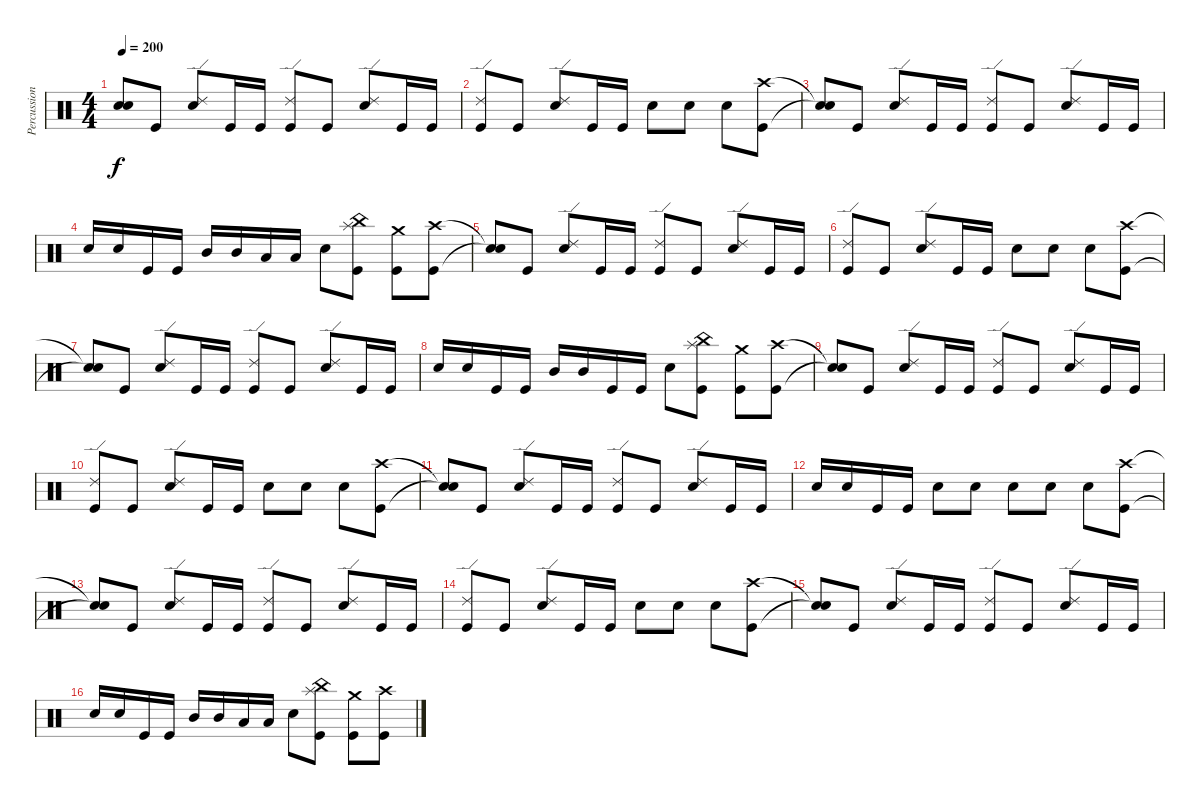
\track ("Percussioni" "Percussion") {instrument percussion}
\staff {score}
\articulation defaults
\ts (4 4)
\tempo 200
\clef neutral
\ks c
("Snare (hit)"{t} "Snare (hit)"{t}).8{dy f} "Kick (hit)".8 ("Ride (edge) 2" "Electric Snare (hit)").8 "Kick (hit)".16 "Kick (hit)".16 ("Ride (edge) 2" "Kick (hit)").8 "Kick (hit)".8 ("Ride (edge) 2" "Electric Snare (hit)").8 "Kick (hit)".16 "Kick (hit)".16 |
("Ride (edge) 2" "Kick (hit)").8 "Kick (hit)".8 ("Ride (edge) 2" "Electric Snare (hit)").8 "Kick (hit)".16 "Kick (hit)".16 "Electric Snare (hit)".8 "Electric Snare (hit)".8 "Electric Snare (hit)".8 ("Crash high (hit)" "Kick (hit)").8 |
("Snare (hit)"{t} "Snare (hit)"{t}).8 "Kick (hit)".8 ("Ride (edge) 2" "Electric Snare (hit)").8 "Kick (hit)".16 "Kick (hit)".16 ("Ride (edge) 2" "Kick (hit)").8 "Kick (hit)".8 ("Ride (edge) 2" "Electric Snare (hit)").8 "Kick (hit)".16 "Kick (hit)".16 |
"Electric Snare (hit)".16 "Electric Snare (hit)".16 "Kick (hit)".16 "Kick (hit)".16 "Mid Tom (hit)".16 "Mid Tom (hit)".16 "Low Tom (hit)".16 "Low Tom (hit)".16 "Electric Snare (hit)".8 ("Splash (hit)" "China (hit)" "Kick (hit)").8 ("Crash medium (hit)" "Kick (hit)").8 ("Crash high (hit)" "Kick (hit)").8 |
("Snare (hit)"{t} "Snare (hit)"{t}).8 "Kick (hit)".8 ("Ride (edge) 2" "Electric Snare (hit)").8 "Kick (hit)".16 "Kick (hit)".16 ("Ride (edge) 2" "Kick (hit)").8 "Kick (hit)".8 ("Ride (edge) 2" "Electric Snare (hit)").8 "Kick (hit)".16 "Kick (hit)".16 |
("Ride (edge) 2" "Kick (hit)").8 "Kick (hit)".8 ("Ride (edge) 2" "Electric Snare (hit)").8 "Kick (hit)".16 "Kick (hit)".16 "Electric Snare (hit)".8 "Electric Snare (hit)".8 "Electric Snare (hit)".8 ("Crash high (hit)" "Kick (hit)").8 |
("Snare (hit)"{t} "Snare (hit)"{t}).8 "Kick (hit)".8 ("Ride (edge) 2" "Electric Snare (hit)").8 "Kick (hit)".16 "Kick (hit)".16 ("Ride (edge) 2" "Kick (hit)").8 "Kick (hit)".8 ("Ride (edge) 2" "Electric Snare (hit)").8 "Kick (hit)".16 "Kick (hit)".16 |
"Electric Snare (hit)".16 "Electric Snare (hit)".16 "Kick (hit)".16 "Kick (hit)".16 "Mid Tom (hit)".16 "Mid Tom (hit)".16 "Kick (hit)".16 "Kick (hit)".16 "Electric Snare (hit)".8 ("Splash (hit)" "China (hit)" "Kick (hit)").8 ("Crash medium (hit)" "Kick (hit)").8 ("Crash high (hit)" "Kick (hit)").8 |
("Snare (hit)"{t} "Snare (hit)"{t}).8 "Kick (hit)".8 ("Ride (edge) 2" "Electric Snare (hit)").8 "Kick (hit)".16 "Kick (hit)".16 ("Ride (edge) 2" "Kick (hit)").8 "Kick (hit)".8 ("Ride (edge) 2" "Electric Snare (hit)").8 "Kick (hit)".16 "Kick (hit)".16 |
("Ride (edge) 2" "Kick (hit)").8 "Kick (hit)".8 ("Ride (edge) 2" "Electric Snare (hit)").8 "Kick (hit)".16 "Kick (hit)".16 "Electric Snare (hit)".8 "Electric Snare (hit)".8 "Electric Snare (hit)".8 ("Crash high (hit)" "Kick (hit)").8 |
("Snare (hit)"{t} "Snare (hit)"{t}).8 "Kick (hit)".8 ("Ride (edge) 2" "Electric Snare (hit)").8 "Kick (hit)".16 "Kick (hit)".16 ("Ride (edge) 2" "Kick (hit)").8 "Kick (hit)".8 ("Ride (edge) 2" "Electric Snare (hit)").8 "Kick (hit)".16 "Kick (hit)".16 |
"Electric Snare (hit)".16 "Electric Snare (hit)".16 "Kick (hit)".16 "Kick (hit)".16 "Electric Snare (hit)".8 "Electric Snare (hit)".8 "Electric Snare (hit)".8 "Electric Snare (hit)".8 "Electric Snare (hit)".8 ("Crash high (hit)" "Kick (hit)").8 |
("Snare (hit)"{t} "Snare (hit)"{t}).8 "Kick (hit)".8 ("Ride (edge) 2" "Electric Snare (hit)").8 "Kick (hit)".16 "Kick (hit)".16 ("Ride (edge) 2" "Kick (hit)").8 "Kick (hit)".8 ("Ride (edge) 2" "Electric Snare (hit)").8 "Kick (hit)".16 "Kick (hit)".16 |
("Ride (edge) 2" "Kick (hit)").8 "Kick (hit)".8 ("Ride (edge) 2" "Electric Snare (hit)").8 "Kick (hit)".16 "Kick (hit)".16 "Electric Snare (hit)".8 "Electric Snare (hit)".8 "Electric Snare (hit)".8 ("Crash high (hit)" "Kick (hit)").8 |
("Snare (hit)"{t} "Snare (hit)"{t}).8 "Kick (hit)".8 ("Ride (edge) 2" "Electric Snare (hit)").8 "Kick (hit)".16 "Kick (hit)".16 ("Ride (edge) 2" "Kick (hit)").8 "Kick (hit)".8 ("Ride (edge) 2" "Electric Snare (hit)").8 "Kick (hit)".16 "Kick (hit)".16 |
"Electric Snare (hit)".16 "Electric Snare (hit)".16 "Kick (hit)".16 "Kick (hit)".16 "Mid Tom (hit)".16 "Mid Tom (hit)".16 "Low Tom (hit)".16 "Low Tom (hit)".16 "Electric Snare (hit)".8 ("Splash (hit)" "China (hit)" "Kick (hit)").8 ("Crash medium (hit)" "Kick (hit)").8 ("Crash high (hit)" "Kick (hit)").8
